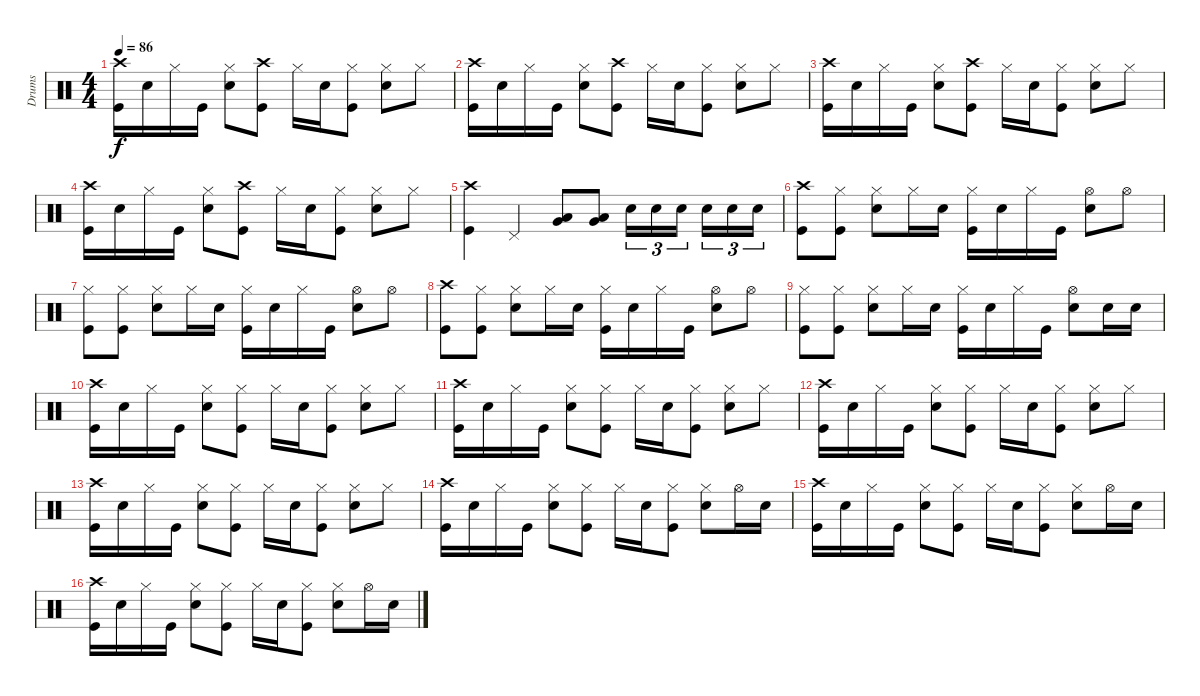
\track ("Drums" "Drums") {instrument percussion}
\staff {score}
\articulation defaults
\ts (4 4)
\tempo 86
\clef neutral
\ks c
("Crash high (hit)" "Kick (hit)").16{dy f} "Snare (hit) 2".16 "Hi-Hat (closed)".16 "Kick (hit)".16 ("Hi-Hat (closed)" "Snare (hit) 2").8 ("Crash high (hit)" "Kick (hit)").8 "Hi-Hat (closed)".16 "Snare (hit) 2".16 ("Hi-Hat (closed)" "Kick (hit)").8 ("Hi-Hat (closed)" "Snare (hit) 2").8 "Hi-Hat (closed)".8 |
("Crash high (hit)" "Kick (hit)").16 "Snare (hit) 2".16 "Hi-Hat (closed)".16 "Kick (hit)".16 ("Hi-Hat (closed)" "Snare (hit) 2").8 ("Crash high (hit)" "Kick (hit)").8 "Hi-Hat (closed)".16 "Snare (hit) 2".16 ("Hi-Hat (closed)" "Kick (hit)").8 ("Hi-Hat (closed)" "Snare (hit) 2").8 "Hi-Hat (closed)".8 |
("Crash high (hit)" "Kick (hit)").16 "Snare (hit) 2".16 "Hi-Hat (closed)".16 "Kick (hit)".16 ("Hi-Hat (closed)" "Snare (hit) 2").8 ("Crash high (hit)" "Kick (hit)").8 "Hi-Hat (closed)".16 "Snare (hit) 2".16 ("Hi-Hat (closed)" "Kick (hit)").8 ("Hi-Hat (closed)" "Snare (hit) 2").8 "Hi-Hat (closed)".8 |
("Crash high (hit)" "Kick (hit)").16 "Snare (hit) 2".16 "Hi-Hat (closed)".16 "Kick (hit)".16 ("Hi-Hat (closed)" "Snare (hit) 2").8 ("Crash high (hit)" "Kick (hit)").8 "Hi-Hat (closed)".16 "Snare (hit) 2".16 ("Hi-Hat (closed)" "Kick (hit)").8 ("Hi-Hat (closed)" "Snare (hit) 2").8 "Hi-Hat (closed)".8 |
("Crash high (hit)" "Kick (hit)").4 "Pedal Hi-Hat (hit)".4 ("Very Low Tom (hit)" "Low Floor Tom (hit)").8 ("Very Low Tom (hit)" "Low Floor Tom (hit)").8 "Snare (hit) 2".16{tu (3 2)} "Snare (hit) 2".16{tu (3 2)} "Snare (hit) 2".16{tu (3 2) beam splitsecondary} "Snare (hit) 2".16{tu (3 2)} "Snare (hit) 2".16{tu (3 2)} "Snare (hit) 2".16{tu (3 2)} |
("Crash high (hit)" "Kick (hit)").8 ("Hi-Hat (closed)" "Kick (hit)").8 ("Hi-Hat (closed)" "Snare (hit) 2").8 "Hi-Hat (closed)".16 "Snare (hit) 2".16 ("Hi-Hat (closed)" "Kick (hit)").16 "Snare (hit) 2".16 "Hi-Hat (closed)".16 "Kick (hit)".16 ("Hi-Hat (open)" "Snare (hit) 2").8 "Hi-Hat (open)".8 |
("Hi-Hat (closed)" "Kick (hit)").8 ("Hi-Hat (closed)" "Kick (hit)").8 ("Hi-Hat (closed)" "Snare (hit) 2").8 "Hi-Hat (closed)".16 "Snare (hit) 2".16 ("Hi-Hat (closed)" "Kick (hit)").16 "Snare (hit) 2".16 "Hi-Hat (closed)".16 "Kick (hit)".16 ("Hi-Hat (open)" "Snare (hit) 2").8 "Hi-Hat (open)".8 |
("Crash high (hit)" "Kick (hit)").8 ("Hi-Hat (closed)" "Kick (hit)").8 ("Hi-Hat (closed)" "Snare (hit) 2").8 "Hi-Hat (closed)".16 "Snare (hit) 2".16 ("Hi-Hat (closed)" "Kick (hit)").16 "Snare (hit) 2".16 "Hi-Hat (closed)".16 "Kick (hit)".16 ("Hi-Hat (open)" "Snare (hit) 2").8 "Hi-Hat (open)".8 |
("Hi-Hat (closed)" "Kick (hit)").8 ("Hi-Hat (closed)" "Kick (hit)").8 ("Hi-Hat (closed)" "Snare (hit) 2").8 "Hi-Hat (closed)".16 "Snare (hit) 2".16 ("Hi-Hat (closed)" "Kick (hit)").16 "Snare (hit) 2".16 "Hi-Hat (closed)".16 "Kick (hit)".16 ("Hi-Hat (open)" "Snare (hit) 2").8 "Snare (hit) 2".16 "Snare (hit) 2".16 |
("Crash high (hit)" "Kick (hit)").16 "Snare (hit) 2".16 "Hi-Hat (closed)".16 "Kick (hit)".16 ("Hi-Hat (closed)" "Snare (hit) 2").8 ("Hi-Hat (closed)" "Kick (hit)").8 "Hi-Hat (closed)".16 "Snare (hit) 2".16 ("Hi-Hat (closed)" "Kick (hit)").8 ("Hi-Hat (closed)" "Snare (hit) 2").8 "Hi-Hat (closed)".8 |
("Crash high (hit)" "Kick (hit)").16 "Snare (hit) 2".16 "Hi-Hat (closed)".16 "Kick (hit)".16 ("Hi-Hat (closed)" "Snare (hit) 2").8 ("Hi-Hat (closed)" "Kick (hit)").8 "Hi-Hat (closed)".16 "Snare (hit) 2".16 ("Hi-Hat (closed)" "Kick (hit)").8 ("Hi-Hat (closed)" "Snare (hit) 2").8 "Hi-Hat (closed)".8 |
("Crash high (hit)" "Kick (hit)").16 "Snare (hit) 2".16 "Hi-Hat (closed)".16 "Kick (hit)".16 ("Hi-Hat (closed)" "Snare (hit) 2").8 ("Hi-Hat (closed)" "Kick (hit)").8 "Hi-Hat (closed)".16 "Snare (hit) 2".16 ("Hi-Hat (closed)" "Kick (hit)").8 ("Hi-Hat (closed)" "Snare (hit) 2").8 "Hi-Hat (closed)".8 |
("Crash high (hit)" "Kick (hit)").16 "Snare (hit) 2".16 "Hi-Hat (closed)".16 "Kick (hit)".16 ("Hi-Hat (closed)" "Snare (hit) 2").8 ("Hi-Hat (closed)" "Kick (hit)").8 "Hi-Hat (closed)".16 "Snare (hit) 2".16 ("Hi-Hat (closed)" "Kick (hit)").8 ("Hi-Hat (closed)" "Snare (hit) 2").8 "Hi-Hat (closed)".8 |
("Crash high (hit)" "Kick (hit)").16 "Snare (hit) 2".16 "Hi-Hat (closed)".16 "Kick (hit)".16 ("Hi-Hat (closed)" "Snare (hit) 2").8 ("Hi-Hat (closed)" "Kick (hit)").8 "Hi-Hat (closed)".16 "Snare (hit) 2".16 ("Hi-Hat (closed)" "Kick (hit)").8 ("Hi-Hat (closed)" "Snare (hit) 2").8 "Hi-Hat (open)".16 "Snare (hit) 2".16 |
("Crash high (hit)" "Kick (hit)").16 "Snare (hit) 2".16 "Hi-Hat (closed)".16 "Kick (hit)".16 ("Hi-Hat (closed)" "Snare (hit) 2").8 ("Hi-Hat (closed)" "Kick (hit)").8 "Hi-Hat (closed)".16 "Snare (hit) 2".16 ("Hi-Hat (closed)" "Kick (hit)").8 ("Hi-Hat (closed)" "Snare (hit) 2").8 "Hi-Hat (open)".16 "Snare (hit) 2".16 |
("Crash high (hit)" "Kick (hit)").16 "Snare (hit) 2".16 "Hi-Hat (closed)".16 "Kick (hit)".16 ("Hi-Hat (closed)" "Snare (hit) 2").8 ("Hi-Hat (closed)" "Kick (hit)").8 "Hi-Hat (closed)".16 "Snare (hit) 2".16 ("Hi-Hat (closed)" "Kick (hit)").8 ("Hi-Hat (closed)" "Snare (hit) 2").8 "Hi-Hat (open)".16 "Snare (hit) 2".16
